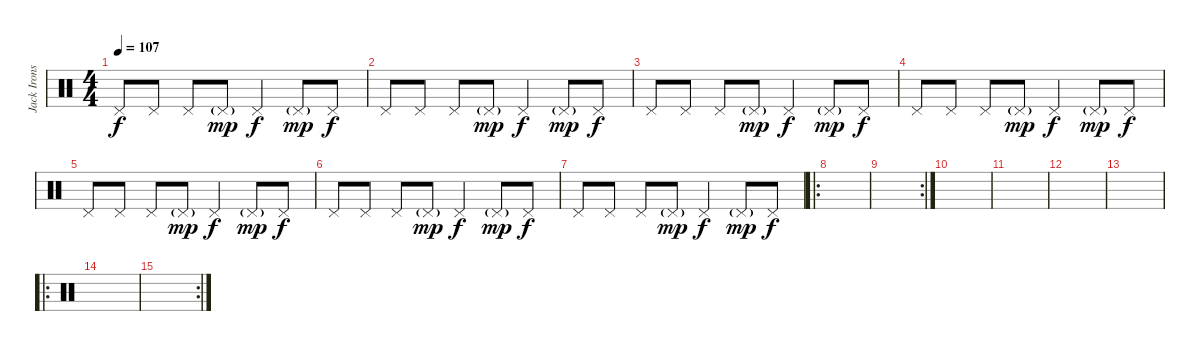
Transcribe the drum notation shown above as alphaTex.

\track ("Jack Irons" "Jack Irons") {instrument percussion}
\staff {score}
\articulation defaults
\ts (4 4)
\tempo 107
\clef neutral
\ks c "Pedal Hi-Hat (hit)".8{dy f} "Pedal Hi-Hat (hit)".8 "Pedal Hi-Hat (hit)".8 "Pedal Hi-Hat (hit)"{g}.8{dy mp} "Pedal Hi-Hat (hit)".4{dy f} "Pedal Hi-Hat (hit)"{g}.8{dy mp} "Pedal Hi-Hat (hit)".8{dy f}
|
"Pedal Hi-Hat (hit)".8 "Pedal Hi-Hat (hit)".8 "Pedal Hi-Hat (hit)".8 "Pedal Hi-Hat (hit)"{g}.8{dy mp} "Pedal Hi-Hat (hit)".4{dy f} "Pedal Hi-Hat (hit)"{g}.8{dy mp} "Pedal Hi-Hat (hit)".8{dy f} |
"Pedal Hi-Hat (hit)".8 "Pedal Hi-Hat (hit)".8 "Pedal Hi-Hat (hit)".8 "Pedal Hi-Hat (hit)"{g}.8{dy mp} "Pedal Hi-Hat (hit)".4{dy f} "Pedal Hi-Hat (hit)"{g}.8{dy mp} "Pedal Hi-Hat (hit)".8{dy f} |
"Pedal Hi-Hat (hit)".8 "Pedal Hi-Hat (hit)".8 "Pedal Hi-Hat (hit)".8 "Pedal Hi-Hat (hit)"{g}.8{dy mp} "Pedal Hi-Hat (hit)".4{dy f} "Pedal Hi-Hat (hit)"{g}.8{dy mp} "Pedal Hi-Hat (hit)".8{dy f} |
"Pedal Hi-Hat (hit)".8 "Pedal Hi-Hat (hit)".8 "Pedal Hi-Hat (hit)".8 "Pedal Hi-Hat (hit)"{g}.8{dy mp} "Pedal Hi-Hat (hit)".4{dy f} "Pedal Hi-Hat (hit)"{g}.8{dy mp} "Pedal Hi-Hat (hit)".8{dy f} |
"Pedal Hi-Hat (hit)".8 "Pedal Hi-Hat (hit)".8 "Pedal Hi-Hat (hit)".8 "Pedal Hi-Hat (hit)"{g}.8{dy mp} "Pedal Hi-Hat (hit)".4{dy f} "Pedal Hi-Hat (hit)"{g}.8{dy mp} "Pedal Hi-Hat (hit)".8{dy f} |
"Pedal Hi-Hat (hit)".8 "Pedal Hi-Hat (hit)".8 "Pedal Hi-Hat (hit)".8 "Pedal Hi-Hat (hit)"{g}.8{dy mp} "Pedal Hi-Hat (hit)".4{dy f} "Pedal Hi-Hat (hit)"{g}.8{dy mp} "Pedal Hi-Hat (hit)".8{dy f} |
\ro
|
\rc 2
|
|
|
|
|
\ro
|
\rc 2
